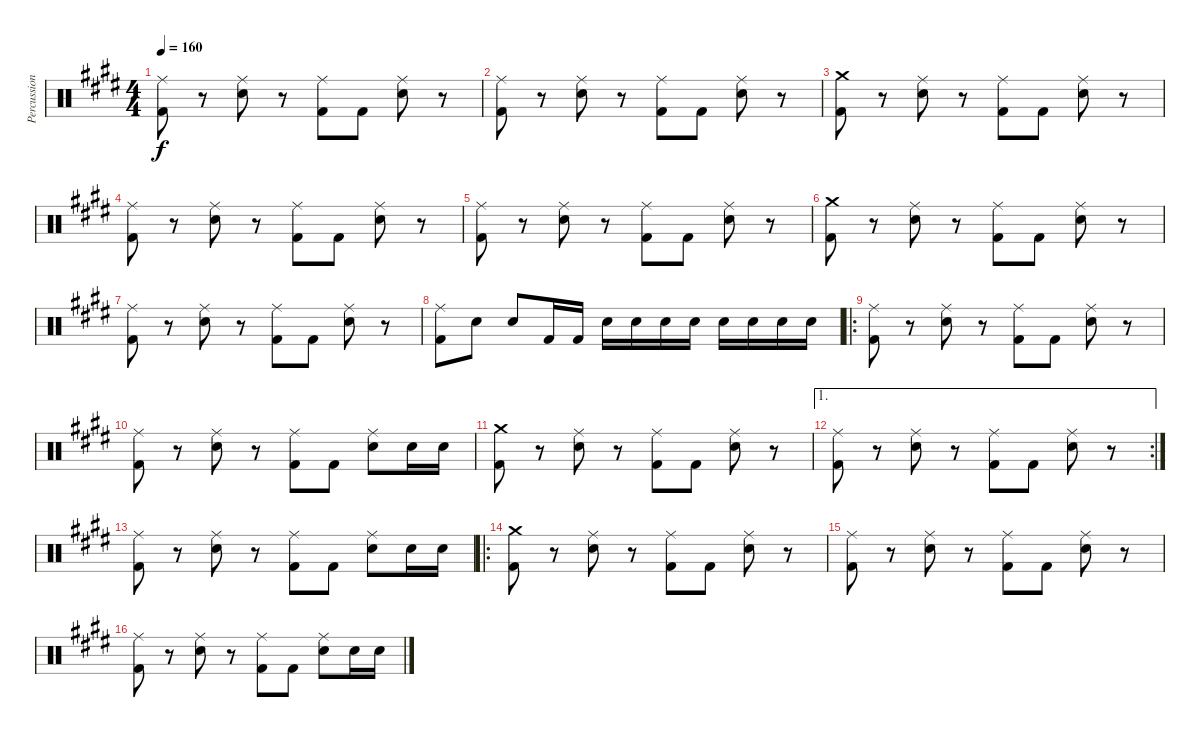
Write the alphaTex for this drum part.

\track ("Percussion" "Percussion") {instrument percussion}
\staff {score}
\articulation defaults
\ts (4 4)
\tempo 160
\clef neutral
\ks e
("Ride (middle)" "Kick (hit) 2").8{dy f} r.8 ("Ride (middle)" "Snare (hit) 2").8 r.8 ("Ride (middle)" "Kick (hit) 2").8 "Kick (hit) 2".8 ("Ride (middle)" "Snare (hit) 2").8 r.8 |
("Ride (middle)" "Kick (hit) 2").8 r.8 ("Ride (middle)" "Snare (hit) 2").8 r.8 ("Ride (middle)" "Kick (hit) 2").8 "Kick (hit) 2".8 ("Ride (middle)" "Snare (hit) 2").8 r.8 |
("Crash medium (hit)" "Kick (hit) 2").8 r.8 ("Ride (middle)" "Snare (hit) 2").8 r.8 ("Ride (middle)" "Kick (hit) 2").8 "Kick (hit) 2".8 ("Ride (middle)" "Snare (hit) 2").8 r.8 |
("Ride (middle)" "Kick (hit) 2").8 r.8 ("Ride (middle)" "Snare (hit) 2").8 r.8 ("Ride (middle)" "Kick (hit) 2").8 "Kick (hit) 2".8 ("Ride (middle)" "Snare (hit) 2").8 r.8 |
("Ride (middle)" "Kick (hit) 2").8 r.8 ("Ride (middle)" "Snare (hit) 2").8 r.8 ("Ride (middle)" "Kick (hit) 2").8 "Kick (hit) 2".8 ("Ride (middle)" "Snare (hit) 2").8 r.8 |
("Crash medium (hit)" "Kick (hit) 2").8 r.8 ("Ride (middle)" "Snare (hit) 2").8 r.8 ("Ride (middle)" "Kick (hit) 2").8 "Kick (hit) 2".8 ("Ride (middle)" "Snare (hit) 2").8 r.8 |
("Ride (middle)" "Kick (hit) 2").8 r.8 ("Ride (middle)" "Snare (hit) 2").8 r.8 ("Ride (middle)" "Kick (hit) 2").8 "Kick (hit) 2".8 ("Ride (middle)" "Snare (hit) 2").8 r.8 |
("Ride (middle)" "Kick (hit) 2").8 "Snare (hit) 2".8 "Snare (hit) 2".8 "Kick (hit) 2".16 "Kick (hit) 2".16 "Snare (hit) 2".16 "Snare (hit) 2".16 "Snare (hit) 2".16 "Snare (hit) 2".16 "Snare (hit) 2".16 "Snare (hit) 2".16 "Snare (hit) 2".16 "Snare (hit) 2".16 |
\ro
("Ride (middle)" "Kick (hit) 2").8 r.8 ("Ride (middle)" "Snare (hit) 2").8 r.8 ("Ride (middle)" "Kick (hit) 2").8 "Kick (hit) 2".8 ("Ride (middle)" "Snare (hit) 2").8 r.8 |
("Ride (middle)" "Kick (hit) 2").8 r.8 ("Ride (middle)" "Snare (hit) 2").8 r.8 ("Ride (middle)" "Kick (hit) 2").8 "Kick (hit) 2".8 ("Ride (middle)" "Snare (hit) 2").8 "Snare (hit) 2".16 "Snare (hit) 2".16 |
("Crash medium (hit)" "Kick (hit) 2").8 r.8 ("Ride (middle)" "Snare (hit) 2").8 r.8 ("Ride (middle)" "Kick (hit) 2").8 "Kick (hit) 2".8 ("Ride (middle)" "Snare (hit) 2").8 r.8 |
\ae 1
\rc 2
("Ride (middle)" "Kick (hit) 2").8 r.8 ("Ride (middle)" "Snare (hit) 2").8 r.8 ("Ride (middle)" "Kick (hit) 2").8 "Kick (hit) 2".8 ("Ride (middle)" "Snare (hit) 2").8 r.8 |
("Ride (middle)" "Kick (hit) 2").8 r.8 ("Ride (middle)" "Snare (hit) 2").8 r.8 ("Ride (middle)" "Kick (hit) 2").8 "Kick (hit) 2".8 ("Ride (middle)" "Snare (hit) 2").8 "Snare (hit) 2".16 "Snare (hit) 2".16 |
\ro
("Crash medium (hit)" "Kick (hit) 2").8 r.8 ("Ride (middle)" "Snare (hit) 2").8 r.8 ("Ride (middle)" "Kick (hit) 2").8 "Kick (hit) 2".8 ("Ride (middle)" "Snare (hit) 2").8 r.8 |
("Ride (middle)" "Kick (hit) 2").8 r.8 ("Ride (middle)" "Snare (hit) 2").8 r.8 ("Ride (middle)" "Kick (hit) 2").8 "Kick (hit) 2".8 ("Ride (middle)" "Snare (hit) 2").8 r.8 |
("Ride (middle)" "Kick (hit) 2").8 r.8 ("Ride (middle)" "Snare (hit) 2").8 r.8 ("Ride (middle)" "Kick (hit) 2").8 "Kick (hit) 2".8 ("Ride (middle)" "Snare (hit) 2").8 "Snare (hit) 2".16 "Snare (hit) 2".16
